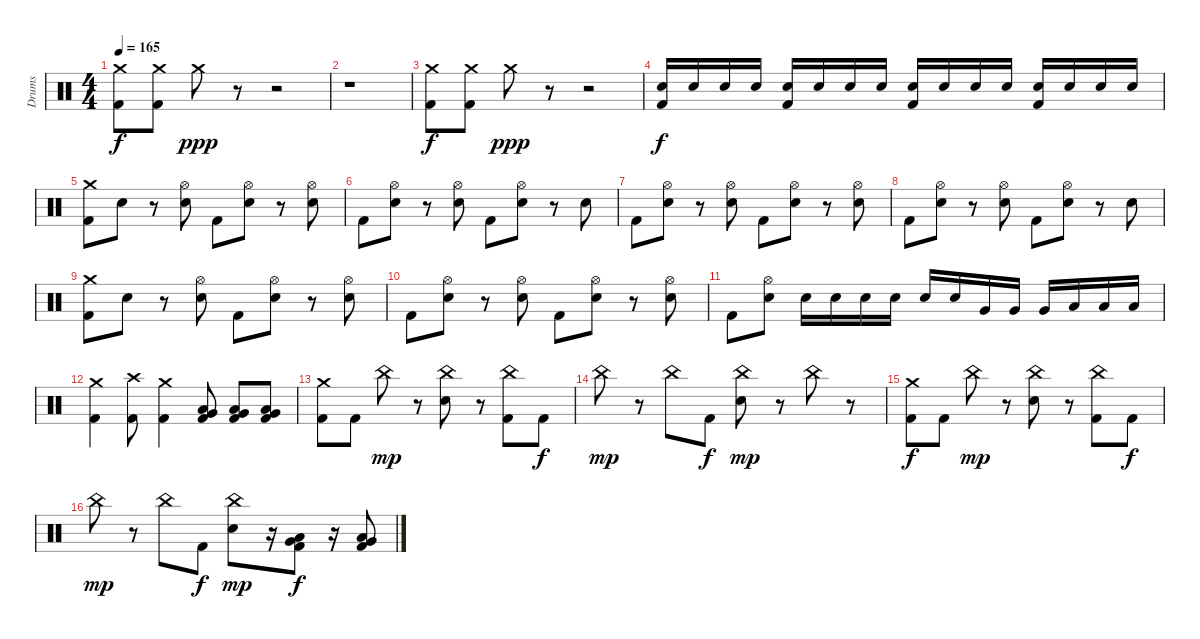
\track ("Drums" "Drums") {instrument percussion}
\staff
\articulation defaults
\ts (4 4)
\tempo 165
\clef neutral
\ks c
("Crash medium (hit)" "Kick (hit) 2").8{dy f} ("Crash medium (hit)" "Kick (hit) 2").8 "Crash medium (hit)".8{dy ppp} r.8 r.2 |
r.1 |
("Crash medium (hit)" "Kick (hit) 2").8{dy f} ("Crash medium (hit)" "Kick (hit) 2").8 "Crash medium (hit)".8{dy ppp} r.8 r.2 |
("Electric Snare (hit)" "Kick (hit) 2").16{dy f} "Electric Snare (hit)".16 "Electric Snare (hit)".16 "Electric Snare (hit)".16 ("Electric Snare (hit)" "Kick (hit) 2").16 "Electric Snare (hit)".16 "Electric Snare (hit)".16 "Electric Snare (hit)".16 ("Electric Snare (hit)" "Kick (hit) 2").16 "Electric Snare (hit)".16 "Electric Snare (hit)".16 "Electric Snare (hit)".16 ("Electric Snare (hit)" "Kick (hit) 2").16 "Electric Snare (hit)".16 "Electric Snare (hit)".16 "Electric Snare (hit)".16 |
("Crash medium (hit)" "Kick (hit) 2").8 "Electric Snare (hit)".8 r.8 ("Hi-Hat (open)" "Electric Snare (hit)").8 "Kick (hit) 2".8 ("Hi-Hat (open)" "Electric Snare (hit)").8 r.8 ("Hi-Hat (open)" "Electric Snare (hit)").8 |
"Kick (hit) 2".8 ("Hi-Hat (open)" "Electric Snare (hit)").8 r.8 ("Hi-Hat (open)" "Electric Snare (hit)").8 "Kick (hit) 2".8 ("Hi-Hat (open)" "Electric Snare (hit)").8 r.8 "Electric Snare (hit)".8 |
"Kick (hit) 2".8 ("Hi-Hat (open)" "Electric Snare (hit)").8 r.8 ("Hi-Hat (open)" "Electric Snare (hit)").8 "Kick (hit) 2".8 ("Hi-Hat (open)" "Electric Snare (hit)").8 r.8 ("Hi-Hat (open)" "Electric Snare (hit)").8 |
"Kick (hit) 2".8 ("Hi-Hat (open)" "Electric Snare (hit)").8 r.8 ("Hi-Hat (open)" "Electric Snare (hit)").8 "Kick (hit) 2".8 ("Hi-Hat (open)" "Electric Snare (hit)").8 r.8 "Electric Snare (hit)".8 |
("Crash medium (hit)" "Kick (hit) 2").8 "Electric Snare (hit)".8 r.8 ("Hi-Hat (open)" "Electric Snare (hit)").8 "Kick (hit) 2".8 ("Hi-Hat (open)" "Electric Snare (hit)").8 r.8 ("Hi-Hat (open)" "Electric Snare (hit)").8 |
"Kick (hit) 2".8 ("Hi-Hat (open)" "Electric Snare (hit)").8 r.8 ("Hi-Hat (open)" "Electric Snare (hit)").8 "Kick (hit) 2".8 ("Hi-Hat (open)" "Electric Snare (hit)").8 r.8 ("Hi-Hat (open)" "Electric Snare (hit)").8 |
"Kick (hit) 2".8 ("Hi-Hat (open)" "Electric Snare (hit)").8 "Electric Snare (hit)".16 "Electric Snare (hit)".16 "Electric Snare (hit)".16 "Electric Snare (hit)".16 "Electric Snare (hit)".16 "Electric Snare (hit)".16 "Very Low Tom (hit)".16 "Very Low Tom (hit)".16 "Very Low Tom (hit)".16 "Low Floor Tom (hit)".16 "Low Floor Tom (hit)".16 "Low Floor Tom (hit)".16 |
("Crash medium (hit)" "Kick (hit) 2").4 ("Crash high (hit)" "Kick (hit) 2").8 ("Crash medium (hit)" "Kick (hit) 2").4 ("Very Low Tom (hit)" "Low Floor Tom (hit)" "Kick (hit) 2").8 ("Very Low Tom (hit)" "Low Floor Tom (hit)" "Kick (hit) 2").8 ("Very Low Tom (hit)" "Low Floor Tom (hit)" "Kick (hit) 2").8 |
("Crash medium (hit)" "Kick (hit) 2").8 "Kick (hit) 2".8 "China (hit)".8{dy mp} r.8 ("China (hit)" "Electric Snare (hit)").8 r.8 ("China (hit)" "Kick (hit) 2").8 "Kick (hit) 2".8{dy f} |
"China (hit)".8{dy mp} r.8 "China (hit)".8 "Kick (hit) 2".8{dy f} ("China (hit)" "Electric Snare (hit)").8{dy mp} r.8 "China (hit)".8 r.8 |
("Crash medium (hit)" "Kick (hit) 2").8{dy f} "Kick (hit) 2".8 "China (hit)".8{dy mp} r.8 ("China (hit)" "Electric Snare (hit)").8 r.8 ("China (hit)" "Kick (hit) 2").8 "Kick (hit) 2".8{dy f} |
"China (hit)".8{dy mp} r.8 "China (hit)".8 "Kick (hit) 2".8{dy f} ("China (hit)" "Electric Snare (hit)").8{dy mp} r.16 ("Low Floor Tom (hit)" "Very Low Tom (hit)" "Kick (hit) 2").8{dy f} r.16 ("Low Floor Tom (hit)" "Very Low Tom (hit)" "Kick (hit) 2").8
